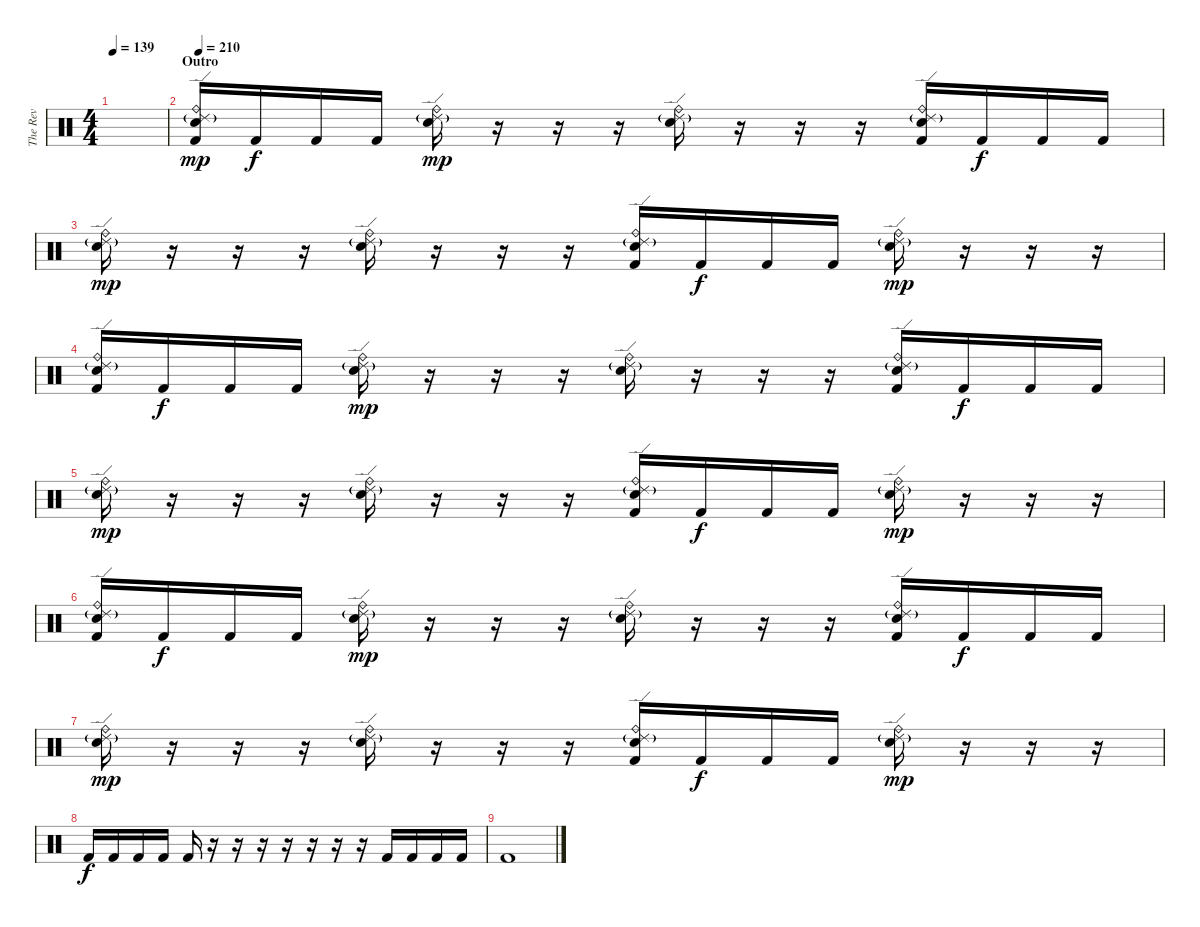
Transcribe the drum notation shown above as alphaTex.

\track ("The Rev" "The Rev") {instrument percussion}
\staff {score}
\articulation defaults
\ts (4 4)
\tempo 139
\clef neutral
\ks c
|
\section ("" "Outro")
\tempo 210
("Ride (edge) 2"{g} "Ride (bell)" "Electric Snare (hit)" "Kick (hit) 2").16{dy mp} "Kick (hit) 2".16{dy f} "Kick (hit) 2".16 "Kick (hit) 2".16 ("Ride (edge) 2"{g} "Ride (bell)" "Electric Snare (hit)").16{dy mp} r.16 r.16 r.16 ("Ride (edge) 2"{g} "Ride (bell)" "Electric Snare (hit)").16 r.16 r.16 r.16 ("Ride (edge) 2"{g} "Ride (bell)" "Electric Snare (hit)" "Kick (hit) 2").16 "Kick (hit) 2".16{dy f} "Kick (hit) 2".16 "Kick (hit) 2".16 |
("Ride (edge) 2"{g} "Ride (bell)" "Electric Snare (hit)").16{dy mp} r.16 r.16 r.16 ("Ride (edge) 2"{g} "Ride (bell)" "Electric Snare (hit)").16 r.16 r.16 r.16 ("Ride (edge) 2"{g} "Ride (bell)" "Electric Snare (hit)" "Kick (hit) 2").16 "Kick (hit) 2".16{dy f} "Kick (hit) 2".16 "Kick (hit) 2".16 ("Ride (edge) 2"{g} "Ride (bell)" "Electric Snare (hit)").16{dy mp} r.16 r.16 r.16 |
("Ride (edge) 2"{g} "Ride (bell)" "Electric Snare (hit)" "Kick (hit) 2").16 "Kick (hit) 2".16{dy f} "Kick (hit) 2".16 "Kick (hit) 2".16 ("Ride (edge) 2"{g} "Ride (bell)" "Electric Snare (hit)").16{dy mp} r.16 r.16 r.16 ("Ride (edge) 2"{g} "Ride (bell)" "Electric Snare (hit)").16 r.16 r.16 r.16 ("Ride (edge) 2"{g} "Ride (bell)" "Electric Snare (hit)" "Kick (hit) 2").16 "Kick (hit) 2".16{dy f} "Kick (hit) 2".16 "Kick (hit) 2".16 |
("Ride (edge) 2"{g} "Ride (bell)" "Electric Snare (hit)").16{dy mp} r.16 r.16 r.16 ("Ride (edge) 2"{g} "Ride (bell)" "Electric Snare (hit)").16 r.16 r.16 r.16 ("Ride (edge) 2"{g} "Ride (bell)" "Electric Snare (hit)" "Kick (hit) 2").16 "Kick (hit) 2".16{dy f} "Kick (hit) 2".16 "Kick (hit) 2".16 ("Ride (edge) 2"{g} "Ride (bell)" "Electric Snare (hit)").16{dy mp} r.16 r.16 r.16 |
("Ride (edge) 2"{g} "Ride (bell)" "Electric Snare (hit)" "Kick (hit) 2").16 "Kick (hit) 2".16{dy f} "Kick (hit) 2".16 "Kick (hit) 2".16 ("Ride (edge) 2"{g} "Ride (bell)" "Electric Snare (hit)").16{dy mp} r.16 r.16 r.16 ("Ride (edge) 2"{g} "Ride (bell)" "Electric Snare (hit)").16 r.16 r.16 r.16 ("Ride (edge) 2"{g} "Ride (bell)" "Electric Snare (hit)" "Kick (hit) 2").16 "Kick (hit) 2".16{dy f} "Kick (hit) 2".16 "Kick (hit) 2".16 |
("Ride (edge) 2"{g} "Ride (bell)" "Electric Snare (hit)").16{dy mp} r.16 r.16 r.16 ("Ride (edge) 2"{g} "Ride (bell)" "Electric Snare (hit)").16 r.16 r.16 r.16 ("Ride (edge) 2"{g} "Ride (bell)" "Electric Snare (hit)" "Kick (hit) 2").16 "Kick (hit) 2".16{dy f} "Kick (hit) 2".16 "Kick (hit) 2".16 ("Ride (edge) 2"{g} "Ride (bell)" "Electric Snare (hit)").16{dy mp} r.16 r.16 r.16 |
"Kick (hit) 2".16{dy f} "Kick (hit) 2".16 "Kick (hit) 2".16 "Kick (hit) 2".16 "Kick (hit) 2".16 r.16 r.16 r.16 r.16 r.16 r.16 r.16 "Kick (hit) 2".16 "Kick (hit) 2".16 "Kick (hit) 2".16 "Kick (hit) 2".16 |
"Kick (hit) 2".1
